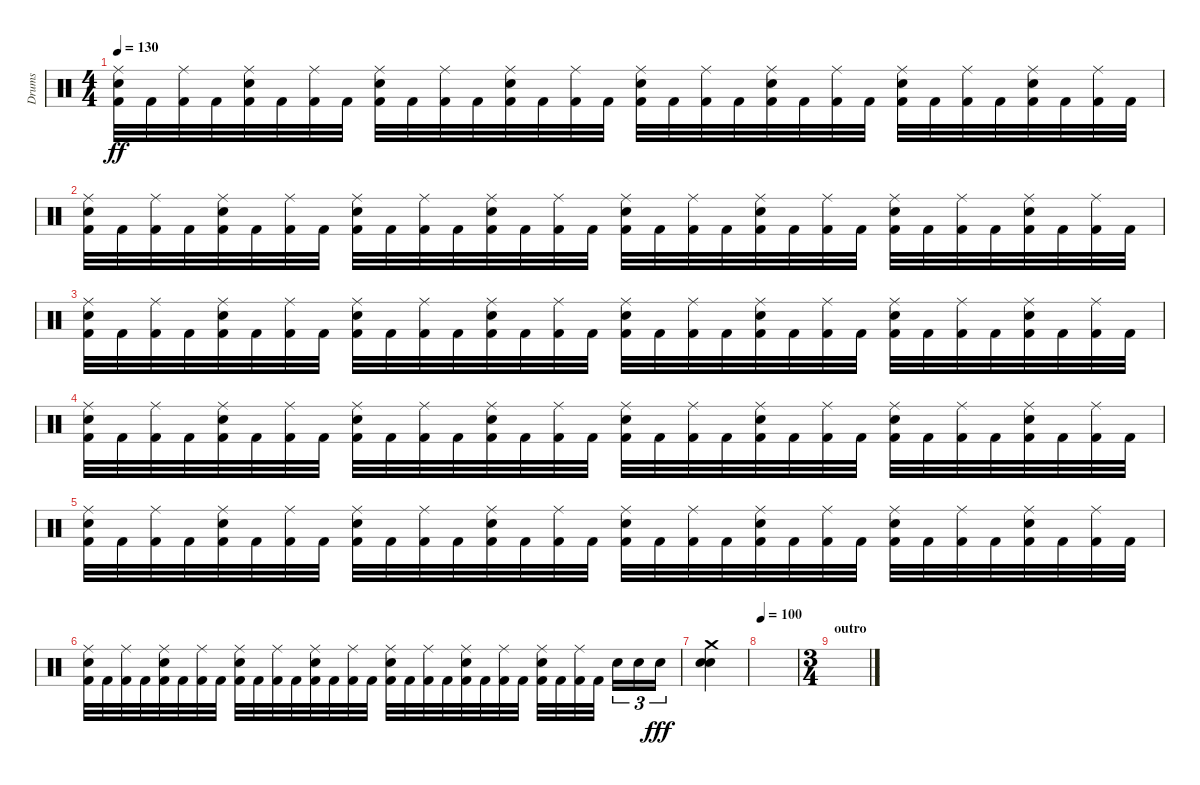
\track ("Drums" "Drums") {instrument percussion}
\staff {score}
\articulation defaults
\ts (4 4)
\tempo 130
\clef neutral
\ks c
("Electric Snare (hit)" "Ride (middle)" "Kick (hit) 2").32{dy ff} "Kick (hit) 2".32 ("Ride (middle)" "Kick (hit) 2").32 "Kick (hit) 2".32 ("Electric Snare (hit)" "Ride (middle)" "Kick (hit) 2").32 "Kick (hit) 2".32 ("Ride (middle)" "Kick (hit) 2").32 "Kick (hit) 2".32 ("Electric Snare (hit)" "Ride (middle)" "Kick (hit) 2").32 "Kick (hit) 2".32 ("Ride (middle)" "Kick (hit) 2").32 "Kick (hit) 2".32 ("Electric Snare (hit)" "Ride (middle)" "Kick (hit) 2").32 "Kick (hit) 2".32 ("Ride (middle)" "Kick (hit) 2").32 "Kick (hit) 2".32 ("Electric Snare (hit)" "Ride (middle)" "Kick (hit) 2").32 "Kick (hit) 2".32 ("Ride (middle)" "Kick (hit) 2").32 "Kick (hit) 2".32 ("Electric Snare (hit)" "Ride (middle)" "Kick (hit) 2").32 "Kick (hit) 2".32 ("Ride (middle)" "Kick (hit) 2").32 "Kick (hit) 2".32 ("Electric Snare (hit)" "Ride (middle)" "Kick (hit) 2").32 "Kick (hit) 2".32 ("Ride (middle)" "Kick (hit) 2").32 "Kick (hit) 2".32 ("Electric Snare (hit)" "Ride (middle)" "Kick (hit) 2").32 "Kick (hit) 2".32 ("Ride (middle)" "Kick (hit) 2").32 "Kick (hit) 2".32 |
("Electric Snare (hit)" "Ride (middle)" "Kick (hit) 2").32 "Kick (hit) 2".32 ("Ride (middle)" "Kick (hit) 2").32 "Kick (hit) 2".32 ("Electric Snare (hit)" "Ride (middle)" "Kick (hit) 2").32 "Kick (hit) 2".32 ("Ride (middle)" "Kick (hit) 2").32 "Kick (hit) 2".32 ("Electric Snare (hit)" "Ride (middle)" "Kick (hit) 2").32 "Kick (hit) 2".32 ("Ride (middle)" "Kick (hit) 2").32 "Kick (hit) 2".32 ("Electric Snare (hit)" "Ride (middle)" "Kick (hit) 2").32 "Kick (hit) 2".32 ("Ride (middle)" "Kick (hit) 2").32 "Kick (hit) 2".32 ("Electric Snare (hit)" "Ride (middle)" "Kick (hit) 2").32 "Kick (hit) 2".32 ("Ride (middle)" "Kick (hit) 2").32 "Kick (hit) 2".32 ("Electric Snare (hit)" "Ride (middle)" "Kick (hit) 2").32 "Kick (hit) 2".32 ("Ride (middle)" "Kick (hit) 2").32 "Kick (hit) 2".32 ("Electric Snare (hit)" "Ride (middle)" "Kick (hit) 2").32 "Kick (hit) 2".32 ("Ride (middle)" "Kick (hit) 2").32 "Kick (hit) 2".32 ("Electric Snare (hit)" "Ride (middle)" "Kick (hit) 2").32 "Kick (hit) 2".32 ("Ride (middle)" "Kick (hit) 2").32 "Kick (hit) 2".32 |
("Electric Snare (hit)" "Ride (middle)" "Kick (hit) 2").32 "Kick (hit) 2".32 ("Ride (middle)" "Kick (hit) 2").32 "Kick (hit) 2".32 ("Electric Snare (hit)" "Ride (middle)" "Kick (hit) 2").32 "Kick (hit) 2".32 ("Ride (middle)" "Kick (hit) 2").32 "Kick (hit) 2".32 ("Electric Snare (hit)" "Ride (middle)" "Kick (hit) 2").32 "Kick (hit) 2".32 ("Ride (middle)" "Kick (hit) 2").32 "Kick (hit) 2".32 ("Electric Snare (hit)" "Ride (middle)" "Kick (hit) 2").32 "Kick (hit) 2".32 ("Ride (middle)" "Kick (hit) 2").32 "Kick (hit) 2".32 ("Electric Snare (hit)" "Ride (middle)" "Kick (hit) 2").32 "Kick (hit) 2".32 ("Ride (middle)" "Kick (hit) 2").32 "Kick (hit) 2".32 ("Electric Snare (hit)" "Ride (middle)" "Kick (hit) 2").32 "Kick (hit) 2".32 ("Ride (middle)" "Kick (hit) 2").32 "Kick (hit) 2".32 ("Electric Snare (hit)" "Ride (middle)" "Kick (hit) 2").32 "Kick (hit) 2".32 ("Ride (middle)" "Kick (hit) 2").32 "Kick (hit) 2".32 ("Electric Snare (hit)" "Ride (middle)" "Kick (hit) 2").32 "Kick (hit) 2".32 ("Ride (middle)" "Kick (hit) 2").32 "Kick (hit) 2".32 |
("Electric Snare (hit)" "Ride (middle)" "Kick (hit) 2").32 "Kick (hit) 2".32 ("Ride (middle)" "Kick (hit) 2").32 "Kick (hit) 2".32 ("Electric Snare (hit)" "Ride (middle)" "Kick (hit) 2").32 "Kick (hit) 2".32 ("Ride (middle)" "Kick (hit) 2").32 "Kick (hit) 2".32 ("Electric Snare (hit)" "Ride (middle)" "Kick (hit) 2").32 "Kick (hit) 2".32 ("Ride (middle)" "Kick (hit) 2").32 "Kick (hit) 2".32 ("Electric Snare (hit)" "Ride (middle)" "Kick (hit) 2").32 "Kick (hit) 2".32 ("Ride (middle)" "Kick (hit) 2").32 "Kick (hit) 2".32 ("Electric Snare (hit)" "Ride (middle)" "Kick (hit) 2").32 "Kick (hit) 2".32 ("Ride (middle)" "Kick (hit) 2").32 "Kick (hit) 2".32 ("Electric Snare (hit)" "Ride (middle)" "Kick (hit) 2").32 "Kick (hit) 2".32 ("Ride (middle)" "Kick (hit) 2").32 "Kick (hit) 2".32 ("Electric Snare (hit)" "Ride (middle)" "Kick (hit) 2").32 "Kick (hit) 2".32 ("Ride (middle)" "Kick (hit) 2").32 "Kick (hit) 2".32 ("Electric Snare (hit)" "Ride (middle)" "Kick (hit) 2").32 "Kick (hit) 2".32 ("Ride (middle)" "Kick (hit) 2").32 "Kick (hit) 2".32 |
("Electric Snare (hit)" "Ride (middle)" "Kick (hit) 2").32 "Kick (hit) 2".32 ("Ride (middle)" "Kick (hit) 2").32 "Kick (hit) 2".32 ("Electric Snare (hit)" "Ride (middle)" "Kick (hit) 2").32 "Kick (hit) 2".32 ("Ride (middle)" "Kick (hit) 2").32 "Kick (hit) 2".32 ("Electric Snare (hit)" "Ride (middle)" "Kick (hit) 2").32 "Kick (hit) 2".32 ("Ride (middle)" "Kick (hit) 2").32 "Kick (hit) 2".32 ("Electric Snare (hit)" "Ride (middle)" "Kick (hit) 2").32 "Kick (hit) 2".32 ("Ride (middle)" "Kick (hit) 2").32 "Kick (hit) 2".32 ("Electric Snare (hit)" "Ride (middle)" "Kick (hit) 2").32 "Kick (hit) 2".32 ("Ride (middle)" "Kick (hit) 2").32 "Kick (hit) 2".32 ("Electric Snare (hit)" "Ride (middle)" "Kick (hit) 2").32 "Kick (hit) 2".32 ("Ride (middle)" "Kick (hit) 2").32 "Kick (hit) 2".32 ("Electric Snare (hit)" "Ride (middle)" "Kick (hit) 2").32 "Kick (hit) 2".32 ("Ride (middle)" "Kick (hit) 2").32 "Kick (hit) 2".32 ("Electric Snare (hit)" "Ride (middle)" "Kick (hit) 2").32 "Kick (hit) 2".32 ("Ride (middle)" "Kick (hit) 2").32 "Kick (hit) 2".32 |
("Electric Snare (hit)" "Ride (middle)" "Kick (hit) 2").32 "Kick (hit) 2".32 ("Ride (middle)" "Kick (hit) 2").32 "Kick (hit) 2".32 ("Electric Snare (hit)" "Ride (middle)" "Kick (hit) 2").32 "Kick (hit) 2".32 ("Ride (middle)" "Kick (hit) 2").32 "Kick (hit) 2".32 ("Electric Snare (hit)" "Ride (middle)" "Kick (hit) 2").32 "Kick (hit) 2".32 ("Ride (middle)" "Kick (hit) 2").32 "Kick (hit) 2".32 ("Electric Snare (hit)" "Ride (middle)" "Kick (hit) 2").32 "Kick (hit) 2".32 ("Ride (middle)" "Kick (hit) 2").32 "Kick (hit) 2".32 ("Electric Snare (hit)" "Ride (middle)" "Kick (hit) 2").32 "Kick (hit) 2".32 ("Ride (middle)" "Kick (hit) 2").32 "Kick (hit) 2".32 ("Electric Snare (hit)" "Ride (middle)" "Kick (hit) 2").32 "Kick (hit) 2".32 ("Ride (middle)" "Kick (hit) 2").32 "Kick (hit) 2".32 ("Electric Snare (hit)" "Ride (middle)" "Kick (hit) 2").32 "Kick (hit) 2".32 ("Ride (middle)" "Kick (hit) 2").32 "Kick (hit) 2".32 "Electric Snare (hit)".16{tu (3 2)} "Electric Snare (hit)".16{tu (3 2)} "Electric Snare (hit)".16{tu (3 2) dy fff} |
("Crash medium (hit)" "Snare (hit) 2" "Electric Snare (hit)").4 |
\tempo 100
|
\ts (3 4)
\section ("" "outro")
